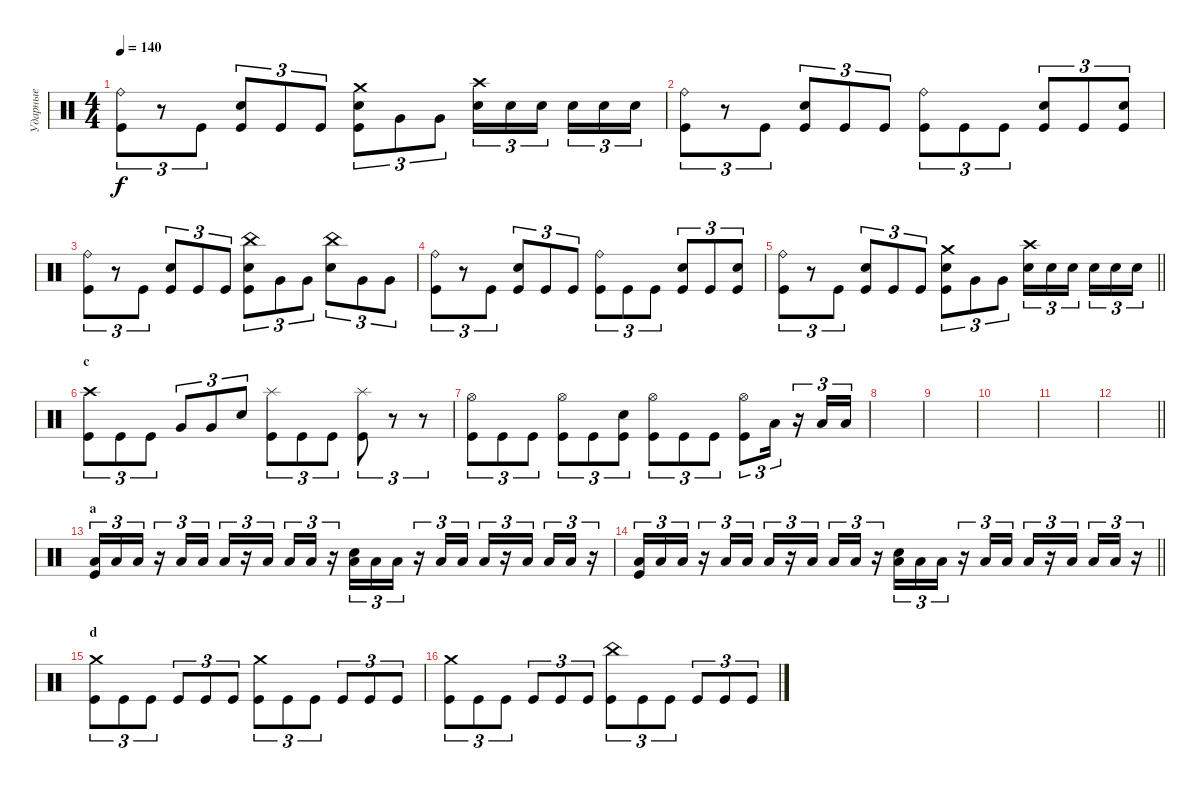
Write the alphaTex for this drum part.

\track ("Ударные" "Ударные") {instrument percussion}
\staff {score}
\articulation defaults
\ts (4 4)
\tempo 140
\clef neutral
\ks c
("Ride (bell)" "Kick (hit)").8{tu (3 2) dy f} r.8{tu (3 2)} "Kick (hit)".8{tu (3 2)} ("Electric Snare (hit)" "Kick (hit)").8{tu (3 2)} "Kick (hit)".8{tu (3 2)} "Kick (hit)".8{tu (3 2)} ("Electric Snare (hit)" "Kick (hit)" "Crash medium (hit)").8{tu (3 2)} "Very Low Tom (hit)".8{tu (3 2)} "Very Low Tom (hit)".8{tu (3 2)} ("Electric Snare (hit)" "Crash high (hit)").16{tu (3 2)} "Electric Snare (hit)".16{tu (3 2)} "Electric Snare (hit)".16{tu (3 2) beam splitsecondary} "Electric Snare (hit)".16{tu (3 2)} "Electric Snare (hit)".16{tu (3 2)} "Electric Snare (hit)".16{tu (3 2)} |
("Ride (bell)" "Kick (hit)").8{tu (3 2)} r.8{tu (3 2)} "Kick (hit)".8{tu (3 2)} ("Electric Snare (hit)" "Kick (hit)").8{tu (3 2)} "Kick (hit)".8{tu (3 2)} "Kick (hit)".8{tu (3 2)} ("Ride (bell)" "Kick (hit)").8{tu (3 2)} "Kick (hit)".8{tu (3 2)} "Kick (hit)".8{tu (3 2)} ("Electric Snare (hit)" "Kick (hit)").8{tu (3 2)} "Kick (hit)".8{tu (3 2)} ("Electric Snare (hit)" "Kick (hit)").8{tu (3 2)} |
("Ride (bell)" "Kick (hit)").8{tu (3 2)} r.8{tu (3 2)} "Kick (hit)".8{tu (3 2)} ("Electric Snare (hit)" "Kick (hit)").8{tu (3 2)} "Kick (hit)".8{tu (3 2)} "Kick (hit)".8{tu (3 2)} ("Electric Snare (hit)" "Kick (hit)" "China (hit)").8{tu (3 2)} "Very Low Tom (hit)".8{tu (3 2)} "Very Low Tom (hit)".8{tu (3 2)} ("Electric Snare (hit)" "China (hit)").8{tu (3 2)} "Very Low Tom (hit)".8{tu (3 2)} "Very Low Tom (hit)".8{tu (3 2)} |
("Ride (bell)" "Kick (hit)").8{tu (3 2)} r.8{tu (3 2)} "Kick (hit)".8{tu (3 2)} ("Electric Snare (hit)" "Kick (hit)").8{tu (3 2)} "Kick (hit)".8{tu (3 2)} "Kick (hit)".8{tu (3 2)} ("Ride (bell)" "Kick (hit)").8{tu (3 2)} "Kick (hit)".8{tu (3 2)} "Kick (hit)".8{tu (3 2)} ("Electric Snare (hit)" "Kick (hit)").8{tu (3 2)} "Kick (hit)".8{tu (3 2)} ("Electric Snare (hit)" "Kick (hit)").8{tu (3 2)} |
\barLineRight lightlight
("Ride (bell)" "Kick (hit)").8{tu (3 2)} r.8{tu (3 2)} "Kick (hit)".8{tu (3 2)} ("Electric Snare (hit)" "Kick (hit)").8{tu (3 2)} "Kick (hit)".8{tu (3 2)} "Kick (hit)".8{tu (3 2)} ("Electric Snare (hit)" "Kick (hit)" "Crash medium (hit)").8{tu (3 2)} "Very Low Tom (hit)".8{tu (3 2)} "Very Low Tom (hit)".8{tu (3 2)} ("Electric Snare (hit)" "Crash high (hit)").16{tu (3 2)} "Electric Snare (hit)".16{tu (3 2)} "Electric Snare (hit)".16{tu (3 2) beam splitsecondary} "Electric Snare (hit)".16{tu (3 2)} "Electric Snare (hit)".16{tu (3 2)} "Electric Snare (hit)".16{tu (3 2)} |
\section ("" "c")
("Crash high (hit)" "Kick (hit)").8{tu (3 2)} "Kick (hit)".8{tu (3 2)} "Kick (hit)".8{tu (3 2)} "Very Low Tom (hit)".8{tu (3 2)} "Very Low Tom (hit)".8{tu (3 2)} "Electric Snare (hit)".8{tu (3 2)} ("Splash (hit)" "Kick (hit)").8{tu (3 2)} "Kick (hit)".8{tu (3 2)} "Kick (hit)".8{tu (3 2)} ("Splash (hit)" "Kick (hit)").8{tu (3 2)} r.8{tu (3 2)} r.8{tu (3 2)} |
("Hi-Hat (open)" "Kick (hit)").8{tu (3 2)} "Kick (hit)".8{tu (3 2)} "Kick (hit)".8{tu (3 2)} ("Hi-Hat (open)" "Kick (hit)").8{tu (3 2)} "Kick (hit)".8{tu (3 2)} ("Electric Snare (hit)" "Kick (hit)").8{tu (3 2)} ("Hi-Hat (open)" "Kick (hit)").8{tu (3 2)} "Kick (hit)".8{tu (3 2)} "Kick (hit)".8{tu (3 2)} ("Hi-Hat (open)" "Kick (hit)").8{tu (3 2)} "Low Floor Tom (hit)".16{tu (3 2)} r.16{tu (3 2)} "Low Floor Tom (hit)".16{tu (3 2)} "Low Floor Tom (hit)".16{tu (3 2)} |
|
|
|
|
\barLineRight lightlight
|
\section ("" "a")
("Low Floor Tom (hit)" "Kick (hit)").16{tu (3 2)} "Low Floor Tom (hit)".16{tu (3 2)} "Low Floor Tom (hit)".16{tu (3 2)} r.16{tu (3 2)} "Low Floor Tom (hit)".16{tu (3 2)} "Low Floor Tom (hit)".16{tu (3 2)} "Low Floor Tom (hit)".16{tu (3 2)} r.16{tu (3 2)} "Low Floor Tom (hit)".16{tu (3 2) beam splitsecondary} "Low Floor Tom (hit)".16{tu (3 2)} "Low Floor Tom (hit)".16{tu (3 2)} r.16{tu (3 2)} ("Low Floor Tom (hit)" "Electric Snare (hit)").16{tu (3 2)} "Low Floor Tom (hit)".16{tu (3 2)} "Low Floor Tom (hit)".16{tu (3 2)} r.16{tu (3 2)} "Low Floor Tom (hit)".16{tu (3 2)} "Low Floor Tom (hit)".16{tu (3 2)} "Low Floor Tom (hit)".16{tu (3 2)} r.16{tu (3 2)} "Low Floor Tom (hit)".16{tu (3 2) beam splitsecondary} "Low Floor Tom (hit)".16{tu (3 2)} "Low Floor Tom (hit)".16{tu (3 2)} r.16{tu (3 2)} |
\barLineRight lightlight
("Low Floor Tom (hit)" "Kick (hit)").16{tu (3 2)} "Low Floor Tom (hit)".16{tu (3 2)} "Low Floor Tom (hit)".16{tu (3 2)} r.16{tu (3 2)} "Low Floor Tom (hit)".16{tu (3 2)} "Low Floor Tom (hit)".16{tu (3 2)} "Low Floor Tom (hit)".16{tu (3 2)} r.16{tu (3 2)} "Low Floor Tom (hit)".16{tu (3 2) beam splitsecondary} "Low Floor Tom (hit)".16{tu (3 2)} "Low Floor Tom (hit)".16{tu (3 2)} r.16{tu (3 2)} ("Low Floor Tom (hit)" "Electric Snare (hit)").16{tu (3 2)} "Low Floor Tom (hit)".16{tu (3 2)} "Low Floor Tom (hit)".16{tu (3 2)} r.16{tu (3 2)} "Low Floor Tom (hit)".16{tu (3 2)} "Low Floor Tom (hit)".16{tu (3 2)} "Low Floor Tom (hit)".16{tu (3 2)} r.16{tu (3 2)} "Low Floor Tom (hit)".16{tu (3 2) beam splitsecondary} "Low Floor Tom (hit)".16{tu (3 2)} "Low Floor Tom (hit)".16{tu (3 2)} r.16{tu (3 2)} |
\section ("" "d")
("Crash medium (hit)" "Kick (hit)").8{tu (3 2)} "Kick (hit)".8{tu (3 2)} "Kick (hit)".8{tu (3 2)} "Kick (hit)".8{tu (3 2)} "Kick (hit)".8{tu (3 2)} "Kick (hit)".8{tu (3 2)} ("Crash medium (hit)" "Kick (hit)").8{tu (3 2)} "Kick (hit)".8{tu (3 2)} "Kick (hit)".8{tu (3 2)} "Kick (hit)".8{tu (3 2)} "Kick (hit)".8{tu (3 2)} "Kick (hit)".8{tu (3 2)} |
("Crash medium (hit)" "Kick (hit)").8{tu (3 2)} "Kick (hit)".8{tu (3 2)} "Kick (hit)".8{tu (3 2)} "Kick (hit)".8{tu (3 2)} "Kick (hit)".8{tu (3 2)} "Kick (hit)".8{tu (3 2)} ("China (hit)" "Kick (hit)").8{tu (3 2)} "Kick (hit)".8{tu (3 2)} "Kick (hit)".8{tu (3 2)} "Kick (hit)".8{tu (3 2)} "Kick (hit)".8{tu (3 2)} "Kick (hit)".8{tu (3 2)}
